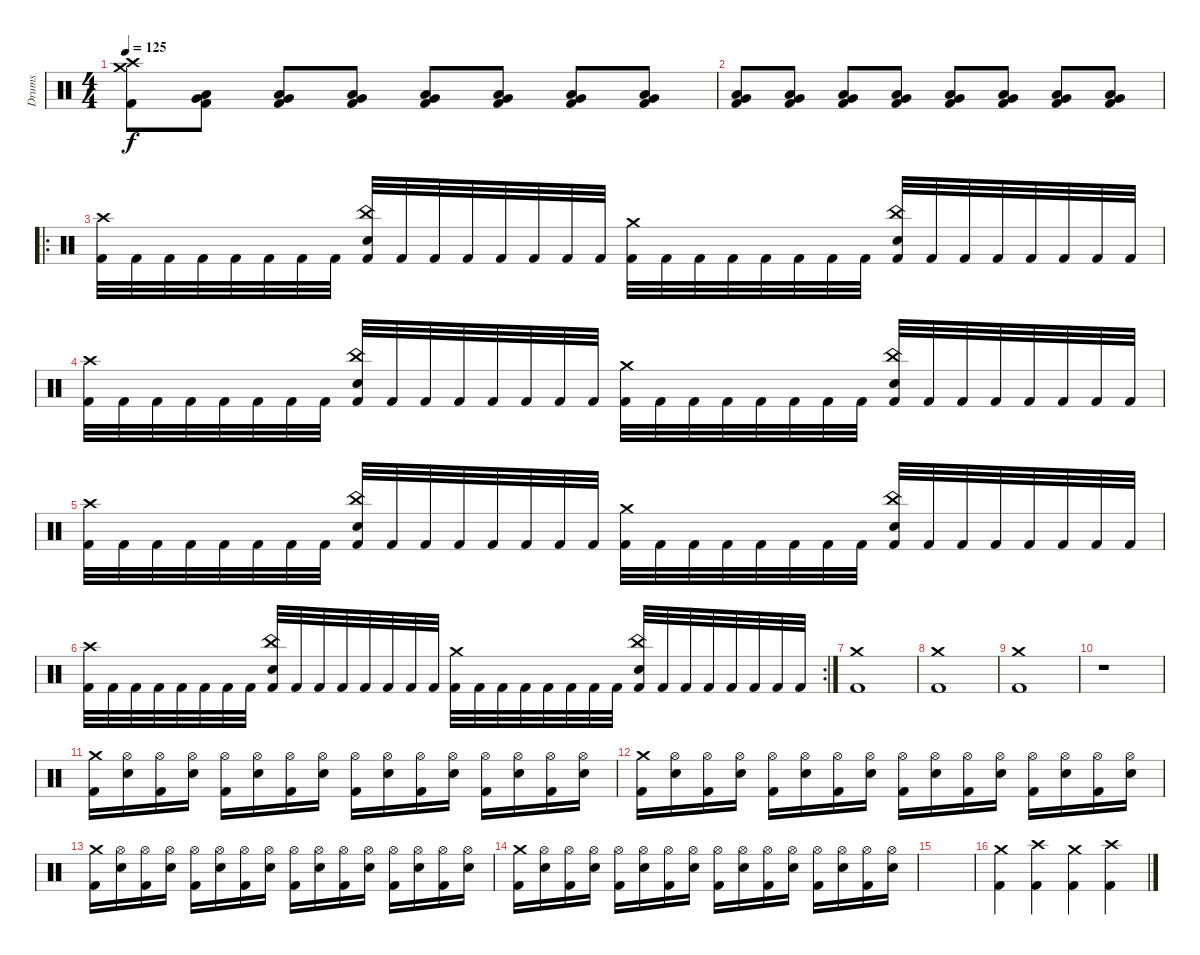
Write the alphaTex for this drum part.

\track ("Drums" "Drums") {instrument percussion}
\staff {score}
\articulation defaults
\ts (4 4)
\tempo 125
\clef neutral
\ks c
("Crash medium (hit)" "Crash high (hit)" "Kick (hit) 2").8{dy f} ("Very Low Tom (hit)" "Low Floor Tom (hit)" "Kick (hit) 2").8 ("Very Low Tom (hit)" "Low Floor Tom (hit)" "Kick (hit) 2").8 ("Very Low Tom (hit)" "Low Floor Tom (hit)" "Kick (hit) 2").8 ("Very Low Tom (hit)" "Low Floor Tom (hit)" "Kick (hit) 2").8 ("Very Low Tom (hit)" "Low Floor Tom (hit)" "Kick (hit) 2").8 ("Very Low Tom (hit)" "Low Floor Tom (hit)" "Kick (hit) 2").8 ("Very Low Tom (hit)" "Low Floor Tom (hit)" "Kick (hit) 2").8 |
("Very Low Tom (hit)" "Low Floor Tom (hit)" "Kick (hit) 2").8 ("Very Low Tom (hit)" "Low Floor Tom (hit)" "Kick (hit) 2").8 ("Very Low Tom (hit)" "Low Floor Tom (hit)" "Kick (hit) 2").8 ("Very Low Tom (hit)" "Low Floor Tom (hit)" "Kick (hit) 2").8 ("Very Low Tom (hit)" "Low Floor Tom (hit)" "Kick (hit) 2").8 ("Very Low Tom (hit)" "Low Floor Tom (hit)" "Kick (hit) 2").8 ("Very Low Tom (hit)" "Low Floor Tom (hit)" "Kick (hit) 2").8 ("Very Low Tom (hit)" "Low Floor Tom (hit)" "Kick (hit) 2").8 |
\ro
("Crash high (hit)" "Kick (hit) 2").32 "Kick (hit) 2".32 "Kick (hit) 2".32 "Kick (hit) 2".32 "Kick (hit) 2".32 "Kick (hit) 2".32 "Kick (hit) 2".32 "Kick (hit) 2".32 ("China (hit)" "Electric Snare (hit)" "Kick (hit) 2").32 "Kick (hit) 2".32 "Kick (hit) 2".32 "Kick (hit) 2".32 "Kick (hit) 2".32 "Kick (hit) 2".32 "Kick (hit) 2".32 "Kick (hit) 2".32 ("Crash medium (hit)" "Kick (hit) 2").32 "Kick (hit) 2".32 "Kick (hit) 2".32 "Kick (hit) 2".32 "Kick (hit) 2".32 "Kick (hit) 2".32 "Kick (hit) 2".32 "Kick (hit) 2".32 ("China (hit)" "Electric Snare (hit)" "Kick (hit) 2").32 "Kick (hit) 2".32 "Kick (hit) 2".32 "Kick (hit) 2".32 "Kick (hit) 2".32 "Kick (hit) 2".32 "Kick (hit) 2".32 "Kick (hit) 2".32 |
("Crash high (hit)" "Kick (hit) 2").32 "Kick (hit) 2".32 "Kick (hit) 2".32 "Kick (hit) 2".32 "Kick (hit) 2".32 "Kick (hit) 2".32 "Kick (hit) 2".32 "Kick (hit) 2".32 ("China (hit)" "Electric Snare (hit)" "Kick (hit) 2").32 "Kick (hit) 2".32 "Kick (hit) 2".32 "Kick (hit) 2".32 "Kick (hit) 2".32 "Kick (hit) 2".32 "Kick (hit) 2".32 "Kick (hit) 2".32 ("Crash medium (hit)" "Kick (hit) 2").32 "Kick (hit) 2".32 "Kick (hit) 2".32 "Kick (hit) 2".32 "Kick (hit) 2".32 "Kick (hit) 2".32 "Kick (hit) 2".32 "Kick (hit) 2".32 ("China (hit)" "Electric Snare (hit)" "Kick (hit) 2").32 "Kick (hit) 2".32 "Kick (hit) 2".32 "Kick (hit) 2".32 "Kick (hit) 2".32 "Kick (hit) 2".32 "Kick (hit) 2".32 "Kick (hit) 2".32 |
("Crash high (hit)" "Kick (hit) 2").32 "Kick (hit) 2".32 "Kick (hit) 2".32 "Kick (hit) 2".32 "Kick (hit) 2".32 "Kick (hit) 2".32 "Kick (hit) 2".32 "Kick (hit) 2".32 ("China (hit)" "Electric Snare (hit)" "Kick (hit) 2").32 "Kick (hit) 2".32 "Kick (hit) 2".32 "Kick (hit) 2".32 "Kick (hit) 2".32 "Kick (hit) 2".32 "Kick (hit) 2".32 "Kick (hit) 2".32 ("Crash medium (hit)" "Kick (hit) 2").32 "Kick (hit) 2".32 "Kick (hit) 2".32 "Kick (hit) 2".32 "Kick (hit) 2".32 "Kick (hit) 2".32 "Kick (hit) 2".32 "Kick (hit) 2".32 ("China (hit)" "Electric Snare (hit)" "Kick (hit) 2").32 "Kick (hit) 2".32 "Kick (hit) 2".32 "Kick (hit) 2".32 "Kick (hit) 2".32 "Kick (hit) 2".32 "Kick (hit) 2".32 "Kick (hit) 2".32 |
\rc 2
("Crash high (hit)" "Kick (hit) 2").32 "Kick (hit) 2".32 "Kick (hit) 2".32 "Kick (hit) 2".32 "Kick (hit) 2".32 "Kick (hit) 2".32 "Kick (hit) 2".32 "Kick (hit) 2".32 ("China (hit)" "Electric Snare (hit)" "Kick (hit) 2").32 "Kick (hit) 2".32 "Kick (hit) 2".32 "Kick (hit) 2".32 "Kick (hit) 2".32 "Kick (hit) 2".32 "Kick (hit) 2".32 "Kick (hit) 2".32 ("Crash medium (hit)" "Kick (hit) 2").32 "Kick (hit) 2".32 "Kick (hit) 2".32 "Kick (hit) 2".32 "Kick (hit) 2".32 "Kick (hit) 2".32 "Kick (hit) 2".32 "Kick (hit) 2".32 ("China (hit)" "Electric Snare (hit)" "Kick (hit) 2").32 "Kick (hit) 2".32 "Kick (hit) 2".32 "Kick (hit) 2".32 "Kick (hit) 2".32 "Kick (hit) 2".32 "Kick (hit) 2".32 "Kick (hit) 2".32 |
("Crash medium (hit)" "Kick (hit) 2").1 |
("Crash medium (hit)" "Kick (hit) 2").1 |
("Crash medium (hit)" "Kick (hit) 2").1 |
r.1 |
("Crash medium (hit)" "Kick (hit) 2").16 ("Hi-Hat (open)" "Electric Snare (hit)").16 ("Hi-Hat (open)" "Kick (hit) 2").16 ("Hi-Hat (open)" "Electric Snare (hit)").16 ("Hi-Hat (open)" "Kick (hit) 2").16 ("Hi-Hat (open)" "Electric Snare (hit)").16 ("Hi-Hat (open)" "Kick (hit) 2").16 ("Hi-Hat (open)" "Electric Snare (hit)").16 ("Hi-Hat (open)" "Kick (hit) 2").16 ("Hi-Hat (open)" "Electric Snare (hit)").16 ("Hi-Hat (open)" "Kick (hit) 2").16 ("Hi-Hat (open)" "Electric Snare (hit)").16 ("Hi-Hat (open)" "Kick (hit) 2").16 ("Hi-Hat (open)" "Electric Snare (hit)").16 ("Hi-Hat (open)" "Kick (hit) 2").16 ("Hi-Hat (open)" "Electric Snare (hit)").16 |
("Crash medium (hit)" "Kick (hit) 2").16 ("Hi-Hat (open)" "Electric Snare (hit)").16 ("Hi-Hat (open)" "Kick (hit) 2").16 ("Hi-Hat (open)" "Electric Snare (hit)").16 ("Hi-Hat (open)" "Kick (hit) 2").16 ("Hi-Hat (open)" "Electric Snare (hit)").16 ("Hi-Hat (open)" "Kick (hit) 2").16 ("Hi-Hat (open)" "Electric Snare (hit)").16 ("Hi-Hat (open)" "Kick (hit) 2").16 ("Hi-Hat (open)" "Electric Snare (hit)").16 ("Hi-Hat (open)" "Kick (hit) 2").16 ("Hi-Hat (open)" "Electric Snare (hit)").16 ("Hi-Hat (open)" "Kick (hit) 2").16 ("Hi-Hat (open)" "Electric Snare (hit)").16 ("Hi-Hat (open)" "Kick (hit) 2").16 ("Hi-Hat (open)" "Electric Snare (hit)").16 |
("Crash medium (hit)" "Kick (hit) 2").16 ("Hi-Hat (open)" "Electric Snare (hit)").16 ("Hi-Hat (open)" "Kick (hit) 2").16 ("Hi-Hat (open)" "Electric Snare (hit)").16 ("Hi-Hat (open)" "Kick (hit) 2").16 ("Hi-Hat (open)" "Electric Snare (hit)").16 ("Hi-Hat (open)" "Kick (hit) 2").16 ("Hi-Hat (open)" "Electric Snare (hit)").16 ("Hi-Hat (open)" "Kick (hit) 2").16 ("Hi-Hat (open)" "Electric Snare (hit)").16 ("Hi-Hat (open)" "Kick (hit) 2").16 ("Hi-Hat (open)" "Electric Snare (hit)").16 ("Hi-Hat (open)" "Kick (hit) 2").16 ("Hi-Hat (open)" "Electric Snare (hit)").16 ("Hi-Hat (open)" "Kick (hit) 2").16 ("Hi-Hat (open)" "Electric Snare (hit)").16 |
("Crash medium (hit)" "Kick (hit) 2").16 ("Hi-Hat (open)" "Electric Snare (hit)").16 ("Hi-Hat (open)" "Kick (hit) 2").16 ("Hi-Hat (open)" "Electric Snare (hit)").16 ("Hi-Hat (open)" "Kick (hit) 2").16 ("Hi-Hat (open)" "Electric Snare (hit)").16 ("Hi-Hat (open)" "Kick (hit) 2").16 ("Hi-Hat (open)" "Electric Snare (hit)").16 ("Hi-Hat (open)" "Kick (hit) 2").16 ("Hi-Hat (open)" "Electric Snare (hit)").16 ("Hi-Hat (open)" "Kick (hit) 2").16 ("Hi-Hat (open)" "Electric Snare (hit)").16 ("Hi-Hat (open)" "Kick (hit) 2").16 ("Hi-Hat (open)" "Electric Snare (hit)").16 ("Hi-Hat (open)" "Kick (hit) 2").16 ("Hi-Hat (open)" "Electric Snare (hit)").16 |
|
("Crash medium (hit)" "Kick (hit) 2").4 ("Crash high (hit)" "Kick (hit) 2").4 ("Crash medium (hit)" "Kick (hit) 2").4 ("Crash high (hit)" "Kick (hit) 2").4
